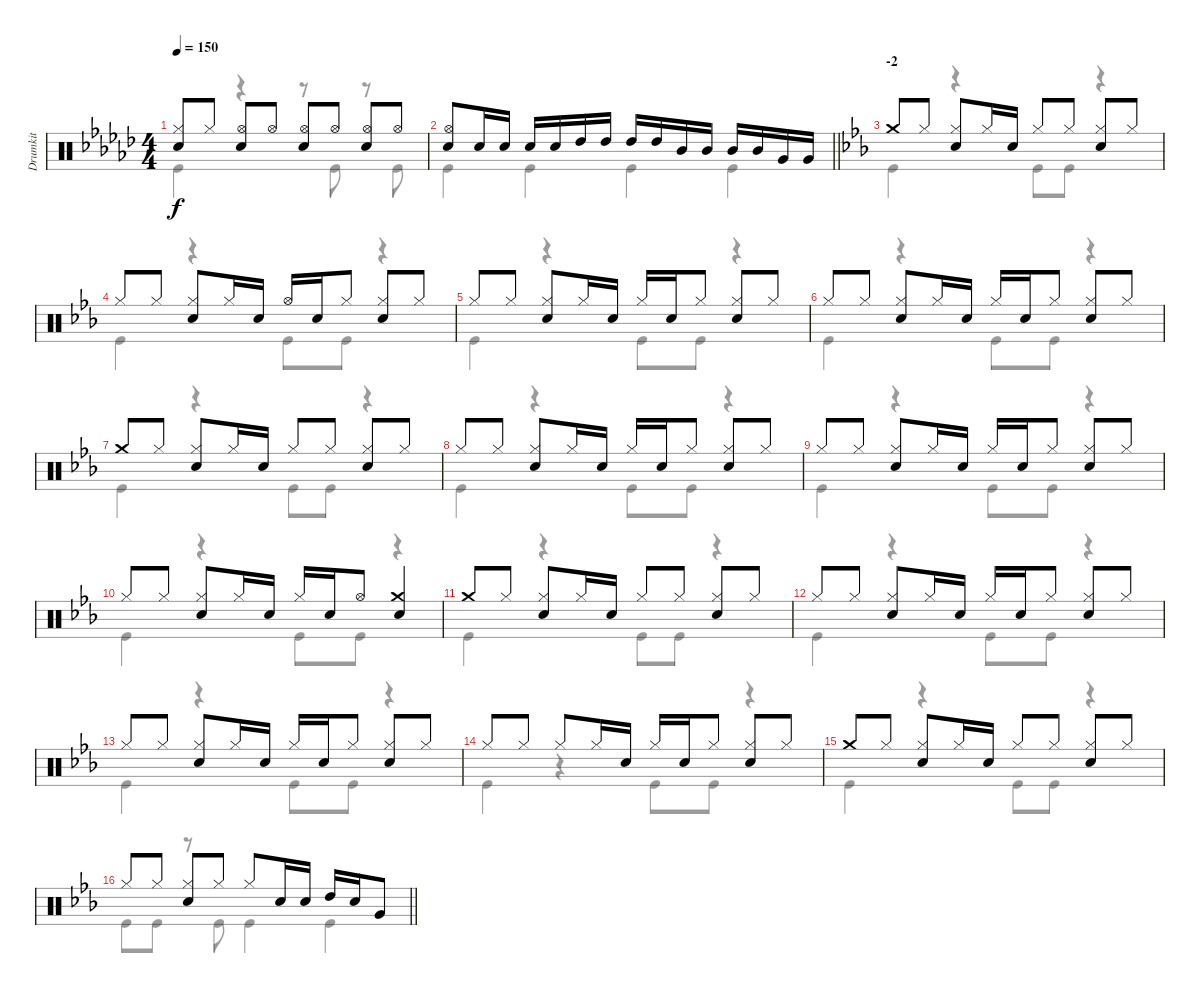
\track ("Drumkit" "Drumkit") {instrument percussion}
\staff {score}
\articulation defaults
\voice
\ts (4 4)
\tempo 150
\clef neutral
\ks ebminor
("Hi-Hat (closed)" "Snare (hit) 2").8{dy f} "Hi-Hat (closed)".8 ("Hi-Hat (open)" "Snare (hit) 2").8 "Hi-Hat (open)".8 ("Hi-Hat (open)" "Snare (hit) 2").8 "Hi-Hat (open)".8 ("Hi-Hat (open)" "Snare (hit) 2").8 "Hi-Hat (open)".8 |
\barLineRight lightlight
("Hi-Hat (open)" "Snare (hit) 2").8 "Snare (hit) 2".16 "Snare (hit) 2".16 "Snare (hit) 2".16 "Snare (hit) 2".16 "High Tom (hit)".16 "High Tom (hit)".16 "High Tom (hit)".16 "High Tom (hit)".16 "Mid Tom (hit)".16 "Mid Tom (hit)".16 "Mid Tom (hit)".16 "Mid Tom (hit)".16 "Very Low Tom (hit)".16 "Very Low Tom (hit)".16 |
\section ("" "-2")
\ks eb "Crash medium (hit)".8 "Hi-Hat (closed)".8
("Hi-Hat (closed)" "Snare (hit) 2").8 "Hi-Hat (closed)".16 "Snare (hit) 2".16 "Hi-Hat (closed)".8 "Hi-Hat (closed)".8 ("Hi-Hat (closed)" "Snare (hit) 2").8 "Hi-Hat (closed)".8 |
"Hi-Hat (closed)".8 "Hi-Hat (closed)".8 ("Hi-Hat (closed)" "Snare (hit) 2").8 "Hi-Hat (closed)".16 "Snare (hit) 2".16 "Hi-Hat (open)".16 "Snare (hit) 2".16 "Hi-Hat (closed)".8 ("Hi-Hat (closed)" "Snare (hit) 2").8 "Hi-Hat (closed)".8 |
"Hi-Hat (closed)".8 "Hi-Hat (closed)".8 ("Hi-Hat (closed)" "Snare (hit) 2").8 "Hi-Hat (closed)".16 "Snare (hit) 2".16 "Hi-Hat (closed)".16 "Snare (hit) 2".16 "Hi-Hat (closed)".8 ("Hi-Hat (closed)" "Snare (hit) 2").8 "Hi-Hat (closed)".8 |
"Hi-Hat (closed)".8 "Hi-Hat (closed)".8 ("Hi-Hat (closed)" "Snare (hit) 2").8 "Hi-Hat (closed)".16 "Snare (hit) 2".16 "Hi-Hat (closed)".16 "Snare (hit) 2".16 "Hi-Hat (closed)".8 ("Snare (hit) 2" "Hi-Hat (closed)").8 "Hi-Hat (closed)".8 |
"Crash medium (hit)".8 "Hi-Hat (closed)".8 ("Hi-Hat (closed)" "Snare (hit) 2").8 "Hi-Hat (closed)".16 "Snare (hit) 2".16 "Hi-Hat (closed)".8 "Hi-Hat (closed)".8 ("Hi-Hat (closed)" "Snare (hit) 2").8 "Hi-Hat (closed)".8 |
"Hi-Hat (closed)".8 "Hi-Hat (closed)".8 ("Hi-Hat (closed)" "Snare (hit) 2").8 "Hi-Hat (closed)".16 "Snare (hit) 2".16 "Hi-Hat (closed)".16 "Snare (hit) 2".16 "Hi-Hat (closed)".8 ("Hi-Hat (closed)" "Snare (hit) 2").8 "Hi-Hat (closed)".8 |
"Hi-Hat (closed)".8 "Hi-Hat (closed)".8 ("Hi-Hat (closed)" "Snare (hit) 2").8 "Hi-Hat (closed)".16 "Snare (hit) 2".16 "Hi-Hat (closed)".16 "Snare (hit) 2".16 "Hi-Hat (closed)".8 ("Hi-Hat (closed)" "Snare (hit) 2").8 "Hi-Hat (closed)".8 |
"Hi-Hat (closed)".8 "Hi-Hat (closed)".8 ("Hi-Hat (closed)" "Snare (hit) 2").8 "Hi-Hat (closed)".16 "Snare (hit) 2".16 "Hi-Hat (closed)".16 "Snare (hit) 2".16 "Hi-Hat (open)".8 ("Snare (hit) 2" "Crash medium (hit)").4 |
"Crash medium (hit)".8 "Hi-Hat (closed)".8 ("Hi-Hat (closed)" "Snare (hit) 2").8 "Hi-Hat (closed)".16 "Snare (hit) 2".16 "Hi-Hat (closed)".8 "Hi-Hat (closed)".8 ("Hi-Hat (closed)" "Snare (hit) 2").8 "Hi-Hat (closed)".8 |
"Hi-Hat (closed)".8 "Hi-Hat (closed)".8 ("Hi-Hat (closed)" "Snare (hit) 2").8 "Hi-Hat (closed)".16 "Snare (hit) 2".16 "Hi-Hat (closed)".16 "Snare (hit) 2".16 "Hi-Hat (closed)".8 ("Hi-Hat (closed)" "Snare (hit) 2").8 "Hi-Hat (closed)".8 |
"Hi-Hat (closed)".8 "Hi-Hat (closed)".8 ("Hi-Hat (closed)" "Snare (hit) 2").8 "Hi-Hat (closed)".16 "Snare (hit) 2".16 "Hi-Hat (closed)".16 "Snare (hit) 2".16 "Hi-Hat (closed)".8 ("Hi-Hat (closed)" "Snare (hit) 2").8 "Hi-Hat (closed)".8 |
"Hi-Hat (closed)".8 "Hi-Hat (closed)".8 "Hi-Hat (closed)".8 "Hi-Hat (closed)".16 "Snare (hit) 2".16 "Hi-Hat (closed)".16 "Snare (hit) 2".16 "Hi-Hat (closed)".8 ("Hi-Hat (closed)" "Snare (hit) 2").8 "Hi-Hat (closed)".8 |
"Crash medium (hit)".8 "Hi-Hat (closed)".8 ("Hi-Hat (closed)" "Snare (hit) 2").8 "Hi-Hat (closed)".16 "Snare (hit) 2".16 "Hi-Hat (closed)".8 "Hi-Hat (closed)".8 ("Hi-Hat (closed)" "Snare (hit) 2").8 "Hi-Hat (closed)".8 |
\barLineRight lightlight "Hi-Hat (closed)".8 "Hi-Hat (closed)".8
("Hi-Hat (closed)" "Snare (hit) 2").8 "Hi-Hat (closed)".8 "Hi-Hat (closed)".8 "Snare (hit) 2".16 "Snare (hit) 2".16 "High Tom (hit)".16 "Snare (hit) 2".16 "Very Low Tom (hit)".8
\voice
\clef neutral
\ottava regular
\simile none
\ks ebminor "Kick (hit)".4{dy f}
r.4 r.8 "Kick (hit)".8 r.8 "Kick (hit)".8 |
\barLineRight lightlight "Kick (hit)".4 "Kick (hit)".4 "Kick (hit)".4 "Kick (hit)".4
|
\ks eb "Kick (hit)".4
r.4 "Kick (hit)".8 "Kick (hit)".8 r.4 |
"Kick (hit)".4 r.4 "Kick (hit)".8 "Kick (hit)".8 r.4 |
"Kick (hit)".4 r.4 "Kick (hit)".8 "Kick (hit)".8 r.4 |
"Kick (hit)".4 r.4 "Kick (hit)".8 "Kick (hit)".8 r.4 |
"Kick (hit)".4 r.4 "Kick (hit)".8 "Kick (hit)".8 r.4 |
"Kick (hit)".4 r.4 "Kick (hit)".8 "Kick (hit)".8 r.4 |
"Kick (hit)".4 r.4 "Kick (hit)".8 "Kick (hit)".8 r.4 |
"Kick (hit)".4 r.4 "Kick (hit)".8 "Kick (hit)".8 r.4 |
"Kick (hit)".4 r.4 "Kick (hit)".8 "Kick (hit)".8 r.4 |
"Kick (hit)".4 r.4 "Kick (hit)".8 "Kick (hit)".8 r.4 |
"Kick (hit)".4 r.4 "Kick (hit)".8 "Kick (hit)".8 r.4 |
"Kick (hit)".4 r.4 "Kick (hit)".8 "Kick (hit)".8 r.4 |
"Kick (hit)".4 r.4 "Kick (hit)".8 "Kick (hit)".8 r.4 |
\barLineRight lightlight "Kick (hit)".8 "Kick (hit)".8
r.8 "Kick (hit)".8 "Kick (hit)".4 "Kick (hit)".4
